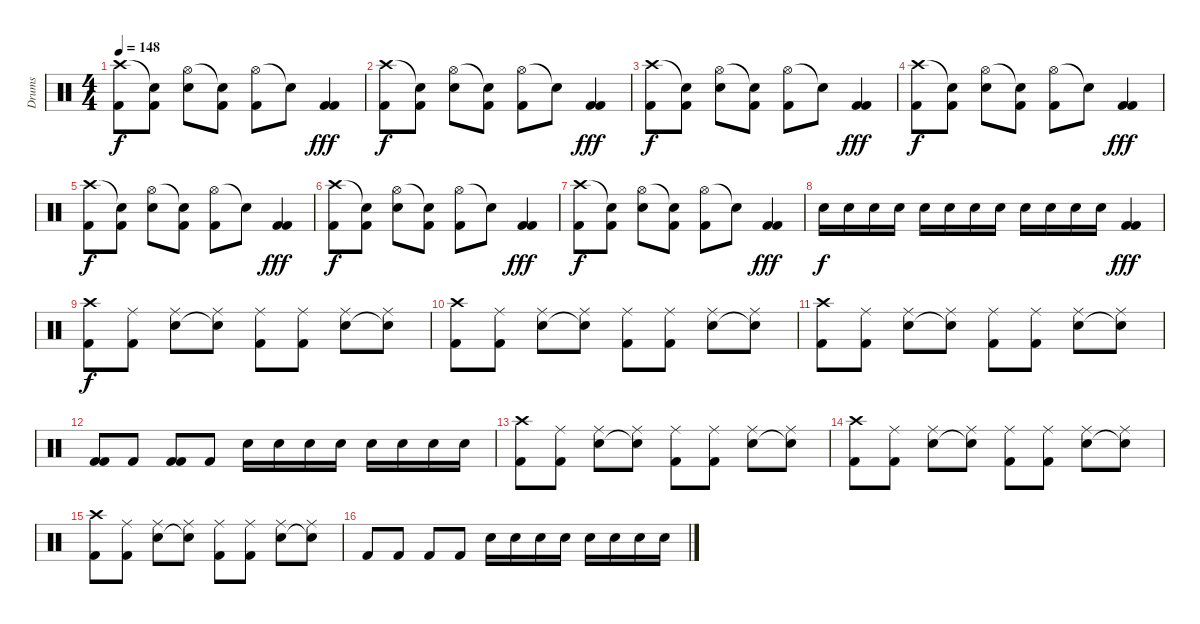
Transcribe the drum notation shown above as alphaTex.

\track ("Drums" "Drums") {instrument percussion}
\staff {score}
\articulation defaults
\ts (4 4)
\tempo 148
\clef neutral
\ks c
("Crash high (hit)" "Kick (hit) 2").8{dy f} ("Snare (hit)"{t} "Kick (hit) 2").8 ("Hi-Hat (open)" "Snare (hit) 2").8 ("Snare (hit)"{t} "Kick (hit) 2").8 ("Hi-Hat (open)" "Kick (hit) 2").8 "Snare (hit)"{t}.8 ("Kick (hit) 2" "Kick (hit) 2").4{dy fff} |
("Crash high (hit)" "Kick (hit) 2").8{dy f} ("Snare (hit)"{t} "Kick (hit) 2").8 ("Hi-Hat (open)" "Snare (hit) 2").8 ("Snare (hit)"{t} "Kick (hit) 2").8 ("Hi-Hat (open)" "Kick (hit) 2").8 "Snare (hit)"{t}.8 ("Kick (hit) 2" "Kick (hit) 2").4{dy fff} |
("Crash high (hit)" "Kick (hit) 2").8{dy f} ("Snare (hit)"{t} "Kick (hit) 2").8 ("Hi-Hat (open)" "Snare (hit) 2").8 ("Snare (hit)"{t} "Kick (hit) 2").8 ("Hi-Hat (open)" "Kick (hit) 2").8 "Snare (hit)"{t}.8 ("Kick (hit) 2" "Kick (hit) 2").4{dy fff} |
("Crash high (hit)" "Kick (hit) 2").8{dy f} ("Snare (hit)"{t} "Kick (hit) 2").8 ("Hi-Hat (open)" "Snare (hit) 2").8 ("Snare (hit)"{t} "Kick (hit) 2").8 ("Hi-Hat (open)" "Kick (hit) 2").8 "Snare (hit)"{t}.8 ("Kick (hit) 2" "Kick (hit) 2").4{dy fff} |
("Crash high (hit)" "Kick (hit) 2").8{dy f} ("Snare (hit)"{t} "Kick (hit) 2").8 ("Hi-Hat (open)" "Snare (hit) 2").8 ("Snare (hit)"{t} "Kick (hit) 2").8 ("Hi-Hat (open)" "Kick (hit) 2").8 "Snare (hit)"{t}.8 ("Kick (hit) 2" "Kick (hit) 2").4{dy fff} |
("Crash high (hit)" "Kick (hit) 2").8{dy f} ("Snare (hit)"{t} "Kick (hit) 2").8 ("Hi-Hat (open)" "Snare (hit) 2").8 ("Snare (hit)"{t} "Kick (hit) 2").8 ("Hi-Hat (open)" "Kick (hit) 2").8 "Snare (hit)"{t}.8 ("Kick (hit) 2" "Kick (hit) 2").4{dy fff} |
("Crash high (hit)" "Kick (hit) 2").8{dy f} ("Snare (hit)"{t} "Kick (hit) 2").8 ("Hi-Hat (open)" "Snare (hit) 2").8 ("Snare (hit)"{t} "Kick (hit) 2").8 ("Hi-Hat (open)" "Kick (hit) 2").8 "Snare (hit)"{t}.8 ("Kick (hit) 2" "Kick (hit) 2").4{dy fff} |
"Snare (hit) 2".16{dy f} "Snare (hit) 2".16 "Snare (hit) 2".16 "Snare (hit) 2".16 "Snare (hit) 2".16 "Snare (hit) 2".16 "Snare (hit) 2".16 "Snare (hit) 2".16 "Snare (hit) 2".16 "Snare (hit) 2".16 "Snare (hit) 2".16 "Snare (hit) 2".16 ("Kick (hit) 2" "Kick (hit) 2").4{dy fff} |
("Crash high (hit)" "Kick (hit) 2").8{dy f} ("Ride (middle)" "Kick (hit) 2").8 ("Ride (middle)" "Snare (hit) 2").8 ("Ride (middle)" "Snare (hit)"{t}).8 ("Ride (middle)" "Kick (hit) 2").8 ("Ride (middle)" "Kick (hit) 2").8 ("Ride (middle)" "Snare (hit) 2").8 ("Ride (middle)" "Snare (hit)"{t}).8 |
("Crash high (hit)" "Kick (hit) 2").8 ("Ride (middle)" "Kick (hit) 2").8 ("Ride (middle)" "Snare (hit) 2").8 ("Ride (middle)" "Snare (hit)"{t}).8 ("Ride (middle)" "Kick (hit) 2").8 ("Ride (middle)" "Kick (hit) 2").8 ("Ride (middle)" "Snare (hit) 2").8 ("Ride (middle)" "Snare (hit)"{t}).8 |
("Crash high (hit)" "Kick (hit) 2").8 ("Ride (middle)" "Kick (hit) 2").8 ("Ride (middle)" "Snare (hit) 2").8 ("Ride (middle)" "Snare (hit)"{t}).8 ("Ride (middle)" "Kick (hit) 2").8 ("Ride (middle)" "Kick (hit) 2").8 ("Ride (middle)" "Snare (hit) 2").8 ("Ride (middle)" "Snare (hit)"{t}).8 |
("Kick (hit) 2" "Kick (hit) 2").8 "Kick (hit) 2".8 ("Kick (hit) 2" "Kick (hit) 2").8 "Kick (hit) 2".8 "Snare (hit) 2".16 "Snare (hit) 2".16 "Snare (hit) 2".16 "Snare (hit) 2".16 "Snare (hit) 2".16 "Snare (hit) 2".16 "Snare (hit) 2".16 "Snare (hit) 2".16 |
("Crash high (hit)" "Kick (hit) 2").8 ("Ride (middle)" "Kick (hit) 2").8 ("Ride (middle)" "Snare (hit) 2").8 ("Ride (middle)" "Snare (hit)"{t}).8 ("Ride (middle)" "Kick (hit) 2").8 ("Ride (middle)" "Kick (hit) 2").8 ("Ride (middle)" "Snare (hit) 2").8 ("Ride (middle)" "Snare (hit)"{t}).8 |
("Crash high (hit)" "Kick (hit) 2").8 ("Ride (middle)" "Kick (hit) 2").8 ("Ride (middle)" "Snare (hit) 2").8 ("Ride (middle)" "Snare (hit)"{t}).8 ("Ride (middle)" "Kick (hit) 2").8 ("Ride (middle)" "Kick (hit) 2").8 ("Ride (middle)" "Snare (hit) 2").8 ("Ride (middle)" "Snare (hit)"{t}).8 |
("Crash high (hit)" "Kick (hit) 2").8 ("Ride (middle)" "Kick (hit) 2").8 ("Ride (middle)" "Snare (hit) 2").8 ("Ride (middle)" "Snare (hit)"{t}).8 ("Ride (middle)" "Kick (hit) 2").8 ("Ride (middle)" "Kick (hit) 2").8 ("Ride (middle)" "Snare (hit) 2").8 ("Ride (middle)" "Snare (hit)"{t}).8 |
"Kick (hit) 2".8 "Kick (hit) 2".8 "Kick (hit) 2".8 "Kick (hit) 2".8 "Snare (hit) 2".16 "Snare (hit) 2".16 "Snare (hit) 2".16 "Snare (hit) 2".16 "Snare (hit) 2".16 "Snare (hit) 2".16 "Snare (hit) 2".16 "Snare (hit) 2".16
